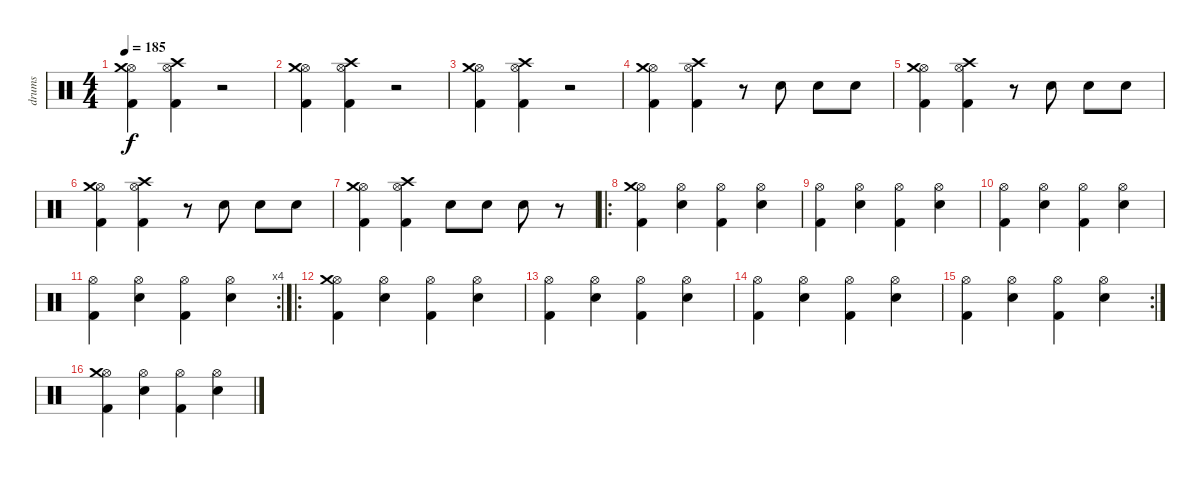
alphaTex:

\track ("drums" "drums") {instrument percussion}
\staff {score}
\articulation defaults
\ts (4 4)
\tempo 185
\clef neutral
\ks c
("Kick (hit) 2" "Hi-Hat (open)" "Crash medium (hit)").4{dy f} ("Kick (hit) 2" "Hi-Hat (open)" "Crash high (hit)").4 r.2 |
("Kick (hit) 2" "Hi-Hat (open)" "Crash medium (hit)").4 ("Kick (hit) 2" "Hi-Hat (open)" "Crash high (hit)").4 r.2 |
("Kick (hit) 2" "Hi-Hat (open)" "Crash medium (hit)").4 ("Kick (hit) 2" "Hi-Hat (open)" "Crash high (hit)").4 r.2 |
("Kick (hit) 2" "Hi-Hat (open)" "Crash medium (hit)").4 ("Kick (hit) 2" "Hi-Hat (open)" "Crash high (hit)").4 r.8 "Electric Snare (hit)".8 "Electric Snare (hit)".8 "Electric Snare (hit)".8 |
("Kick (hit) 2" "Hi-Hat (open)" "Crash medium (hit)").4 ("Kick (hit) 2" "Hi-Hat (open)" "Crash high (hit)").4 r.8 "Electric Snare (hit)".8 "Electric Snare (hit)".8 "Electric Snare (hit)".8 |
("Kick (hit) 2" "Hi-Hat (open)" "Crash medium (hit)").4 ("Kick (hit) 2" "Hi-Hat (open)" "Crash high (hit)").4 r.8 "Electric Snare (hit)".8 "Electric Snare (hit)".8 "Electric Snare (hit)".8 |
("Kick (hit) 2" "Hi-Hat (open)" "Crash medium (hit)").4 ("Kick (hit) 2" "Hi-Hat (open)" "Crash high (hit)").4 "Electric Snare (hit)".8 "Electric Snare (hit)".8 "Electric Snare (hit)".8 r.8 |
\ro
("Kick (hit) 2" "Hi-Hat (open)" "Crash medium (hit)").4 ("Electric Snare (hit)" "Hi-Hat (open)").4 ("Kick (hit) 2" "Hi-Hat (open)").4 ("Electric Snare (hit)" "Hi-Hat (open)").4 |
("Kick (hit) 2" "Hi-Hat (open)").4 ("Electric Snare (hit)" "Hi-Hat (open)").4 ("Kick (hit) 2" "Hi-Hat (open)").4 ("Electric Snare (hit)" "Hi-Hat (open)").4 |
("Kick (hit) 2" "Hi-Hat (open)").4 ("Electric Snare (hit)" "Hi-Hat (open)").4 ("Kick (hit) 2" "Hi-Hat (open)").4 ("Electric Snare (hit)" "Hi-Hat (open)").4 |
\rc 4
("Kick (hit) 2" "Hi-Hat (open)").4 ("Electric Snare (hit)" "Hi-Hat (open)").4 ("Kick (hit) 2" "Hi-Hat (open)").4 ("Electric Snare (hit)" "Hi-Hat (open)").4 |
\ro
("Kick (hit) 2" "Hi-Hat (open)" "Crash medium (hit)").4 ("Electric Snare (hit)" "Hi-Hat (open)").4 ("Kick (hit) 2" "Hi-Hat (open)").4 ("Electric Snare (hit)" "Hi-Hat (open)").4 |
("Kick (hit) 2" "Hi-Hat (open)").4 ("Electric Snare (hit)" "Hi-Hat (open)").4 ("Kick (hit) 2" "Hi-Hat (open)").4 ("Electric Snare (hit)" "Hi-Hat (open)").4 |
("Kick (hit) 2" "Hi-Hat (open)").4 ("Electric Snare (hit)" "Hi-Hat (open)").4 ("Kick (hit) 2" "Hi-Hat (open)").4 ("Electric Snare (hit)" "Hi-Hat (open)").4 |
\rc 2
("Kick (hit) 2" "Hi-Hat (open)").4 ("Electric Snare (hit)" "Hi-Hat (open)").4 ("Kick (hit) 2" "Hi-Hat (open)").4 ("Electric Snare (hit)" "Hi-Hat (open)").4 |
("Kick (hit) 2" "Hi-Hat (open)" "Crash medium (hit)").4 ("Electric Snare (hit)" "Hi-Hat (open)").4 ("Kick (hit) 2" "Hi-Hat (open)").4 ("Electric Snare (hit)" "Hi-Hat (open)").4
